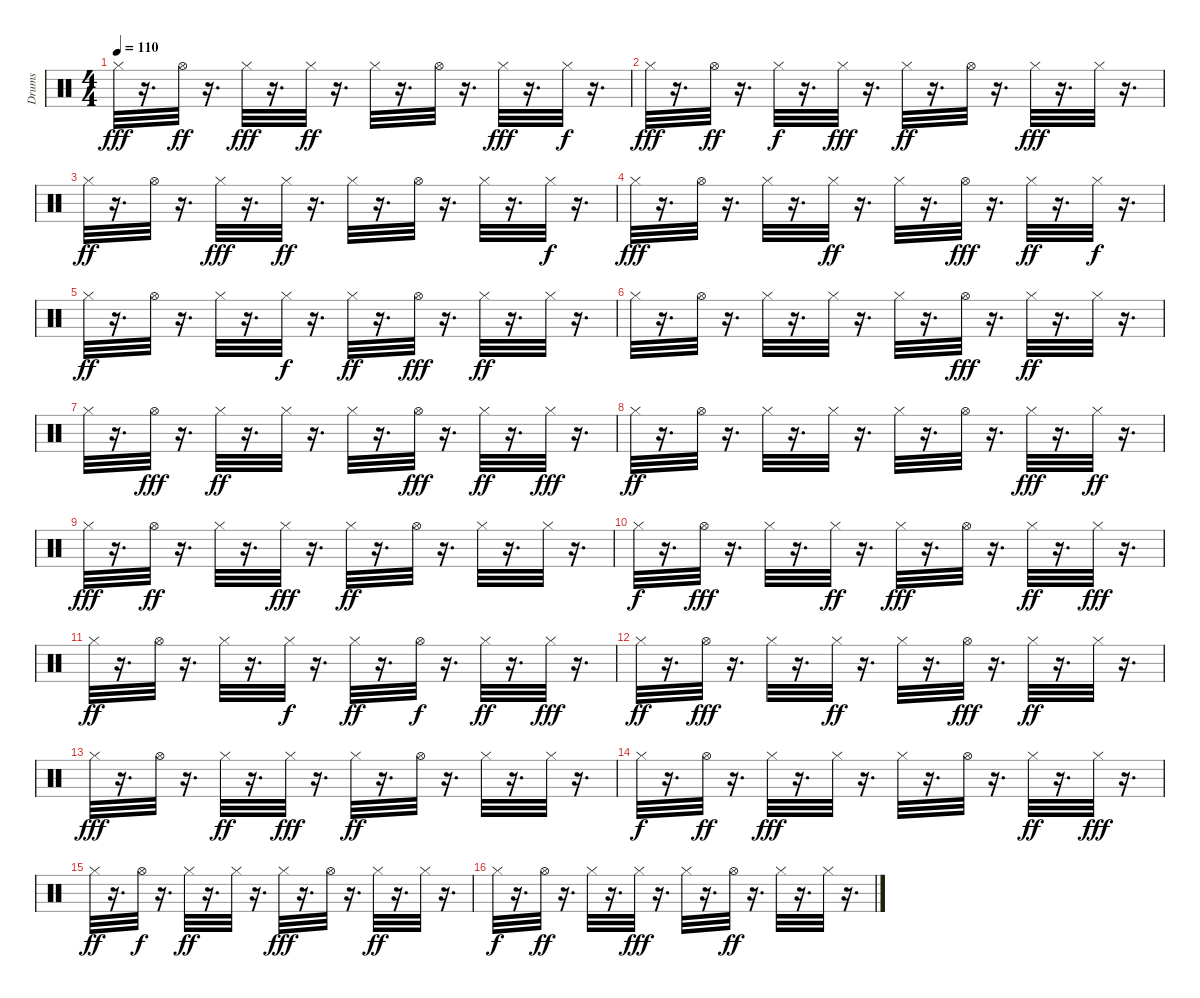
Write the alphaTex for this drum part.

\track ("Drums" "Drums") {instrument percussion}
\staff {score}
\articulation defaults
\ts (4 4)
\tempo 110
\clef neutral
\ks c "Hi-Hat (closed)".32{dy fff}
r.16{d} "Hi-Hat (open)".32{dy ff} r.16{d} "Hi-Hat (closed)".32{dy fff} r.16{d} "Hi-Hat (closed)".32{dy ff} r.16{d} "Hi-Hat (closed)".32 r.16{d} "Hi-Hat (open)".32 r.16{d} "Hi-Hat (closed)".32{dy fff} r.16{d} "Hi-Hat (closed)".32{dy f} r.16{d} |
"Hi-Hat (closed)".32{dy fff} r.16{d} "Hi-Hat (open)".32{dy ff} r.16{d} "Hi-Hat (closed)".32{dy f} r.16{d} "Hi-Hat (closed)".32{dy fff} r.16{d} "Hi-Hat (closed)".32{dy ff} r.16{d} "Hi-Hat (open)".32 r.16{d} "Hi-Hat (closed)".32{dy fff} r.16{d} "Hi-Hat (closed)".32 r.16{d} |
"Hi-Hat (closed)".32{dy ff} r.16{d} "Hi-Hat (open)".32 r.16{d} "Hi-Hat (closed)".32{dy fff} r.16{d} "Hi-Hat (closed)".32{dy ff} r.16{d} "Hi-Hat (closed)".32 r.16{d} "Hi-Hat (open)".32 r.16{d} "Hi-Hat (closed)".32 r.16{d} "Hi-Hat (closed)".32{dy f} r.16{d} |
"Hi-Hat (closed)".32{dy fff} r.16{d} "Hi-Hat (open)".32 r.16{d} "Hi-Hat (closed)".32 r.16{d} "Hi-Hat (closed)".32{dy ff} r.16{d} "Hi-Hat (closed)".32 r.16{d} "Hi-Hat (open)".32{dy fff} r.16{d} "Hi-Hat (closed)".32{dy ff} r.16{d} "Hi-Hat (closed)".32{dy f} r.16{d} |
"Hi-Hat (closed)".32{dy ff} r.16{d} "Hi-Hat (open)".32 r.16{d} "Hi-Hat (closed)".32 r.16{d} "Hi-Hat (closed)".32{dy f} r.16{d} "Hi-Hat (closed)".32{dy ff} r.16{d} "Hi-Hat (open)".32{dy fff} r.16{d} "Hi-Hat (closed)".32{dy ff} r.16{d} "Hi-Hat (closed)".32 r.16{d} |
"Hi-Hat (closed)".32 r.16{d} "Hi-Hat (open)".32 r.16{d} "Hi-Hat (closed)".32 r.16{d} "Hi-Hat (closed)".32 r.16{d} "Hi-Hat (closed)".32 r.16{d} "Hi-Hat (open)".32{dy fff} r.16{d} "Hi-Hat (closed)".32{dy ff} r.16{d} "Hi-Hat (closed)".32 r.16{d} |
"Hi-Hat (closed)".32 r.16{d} "Hi-Hat (open)".32{dy fff} r.16{d} "Hi-Hat (closed)".32{dy ff} r.16{d} "Hi-Hat (closed)".32 r.16{d} "Hi-Hat (closed)".32 r.16{d} "Hi-Hat (open)".32{dy fff} r.16{d} "Hi-Hat (closed)".32{dy ff} r.16{d} "Hi-Hat (closed)".32{dy fff} r.16{d} |
"Hi-Hat (closed)".32{dy ff} r.16{d} "Hi-Hat (open)".32 r.16{d} "Hi-Hat (closed)".32 r.16{d} "Hi-Hat (closed)".32 r.16{d} "Hi-Hat (closed)".32 r.16{d} "Hi-Hat (open)".32 r.16{d} "Hi-Hat (closed)".32{dy fff} r.16{d} "Hi-Hat (closed)".32{dy ff} r.16{d} |
"Hi-Hat (closed)".32{dy fff} r.16{d} "Hi-Hat (open)".32{dy ff} r.16{d} "Hi-Hat (closed)".32 r.16{d} "Hi-Hat (closed)".32{dy fff} r.16{d} "Hi-Hat (closed)".32{dy ff} r.16{d} "Hi-Hat (open)".32 r.16{d} "Hi-Hat (closed)".32 r.16{d} "Hi-Hat (closed)".32 r.16{d} |
"Hi-Hat (closed)".32{dy f} r.16{d} "Hi-Hat (open)".32{dy fff} r.16{d} "Hi-Hat (closed)".32 r.16{d} "Hi-Hat (closed)".32{dy ff} r.16{d} "Hi-Hat (closed)".32{dy fff} r.16{d} "Hi-Hat (open)".32 r.16{d} "Hi-Hat (closed)".32{dy ff} r.16{d} "Hi-Hat (closed)".32{dy fff} r.16{d} |
"Hi-Hat (closed)".32{dy ff} r.16{d} "Hi-Hat (open)".32 r.16{d} "Hi-Hat (closed)".32 r.16{d} "Hi-Hat (closed)".32{dy f} r.16{d} "Hi-Hat (closed)".32{dy ff} r.16{d} "Hi-Hat (open)".32{dy f} r.16{d} "Hi-Hat (closed)".32{dy ff} r.16{d} "Hi-Hat (closed)".32{dy fff} r.16{d} |
"Hi-Hat (closed)".32{dy ff} r.16{d} "Hi-Hat (open)".32{dy fff} r.16{d} "Hi-Hat (closed)".32 r.16{d} "Hi-Hat (closed)".32{dy ff} r.16{d} "Hi-Hat (closed)".32 r.16{d} "Hi-Hat (open)".32{dy fff} r.16{d} "Hi-Hat (closed)".32{dy ff} r.16{d} "Hi-Hat (closed)".32 r.16{d} |
"Hi-Hat (closed)".32{dy fff} r.16{d} "Hi-Hat (open)".32 r.16{d} "Hi-Hat (closed)".32{dy ff} r.16{d} "Hi-Hat (closed)".32{dy fff} r.16{d} "Hi-Hat (closed)".32{dy ff} r.16{d} "Hi-Hat (open)".32 r.16{d} "Hi-Hat (closed)".32 r.16{d} "Hi-Hat (closed)".32 r.16{d} |
"Hi-Hat (closed)".32{dy f} r.16{d} "Hi-Hat (open)".32{dy ff} r.16{d} "Hi-Hat (closed)".32{dy fff} r.16{d} "Hi-Hat (closed)".32 r.16{d} "Hi-Hat (closed)".32 r.16{d} "Hi-Hat (open)".32 r.16{d} "Hi-Hat (closed)".32{dy ff} r.16{d} "Hi-Hat (closed)".32{dy fff} r.16{d} |
"Hi-Hat (closed)".32{dy ff} r.16{d} "Hi-Hat (open)".32{dy f} r.16{d} "Hi-Hat (closed)".32{dy ff} r.16{d} "Hi-Hat (closed)".32 r.16{d} "Hi-Hat (closed)".32{dy fff} r.16{d} "Hi-Hat (open)".32 r.16{d} "Hi-Hat (closed)".32{dy ff} r.16{d} "Hi-Hat (closed)".32 r.16{d} |
"Hi-Hat (closed)".32{dy f} r.16{d} "Hi-Hat (open)".32{dy ff} r.16{d} "Hi-Hat (closed)".32 r.16{d} "Hi-Hat (closed)".32{dy fff} r.16{d} "Hi-Hat (closed)".32 r.16{d} "Hi-Hat (open)".32{dy ff} r.16{d} "Hi-Hat (closed)".32 r.16{d} "Hi-Hat (closed)".32 r.16{d}
